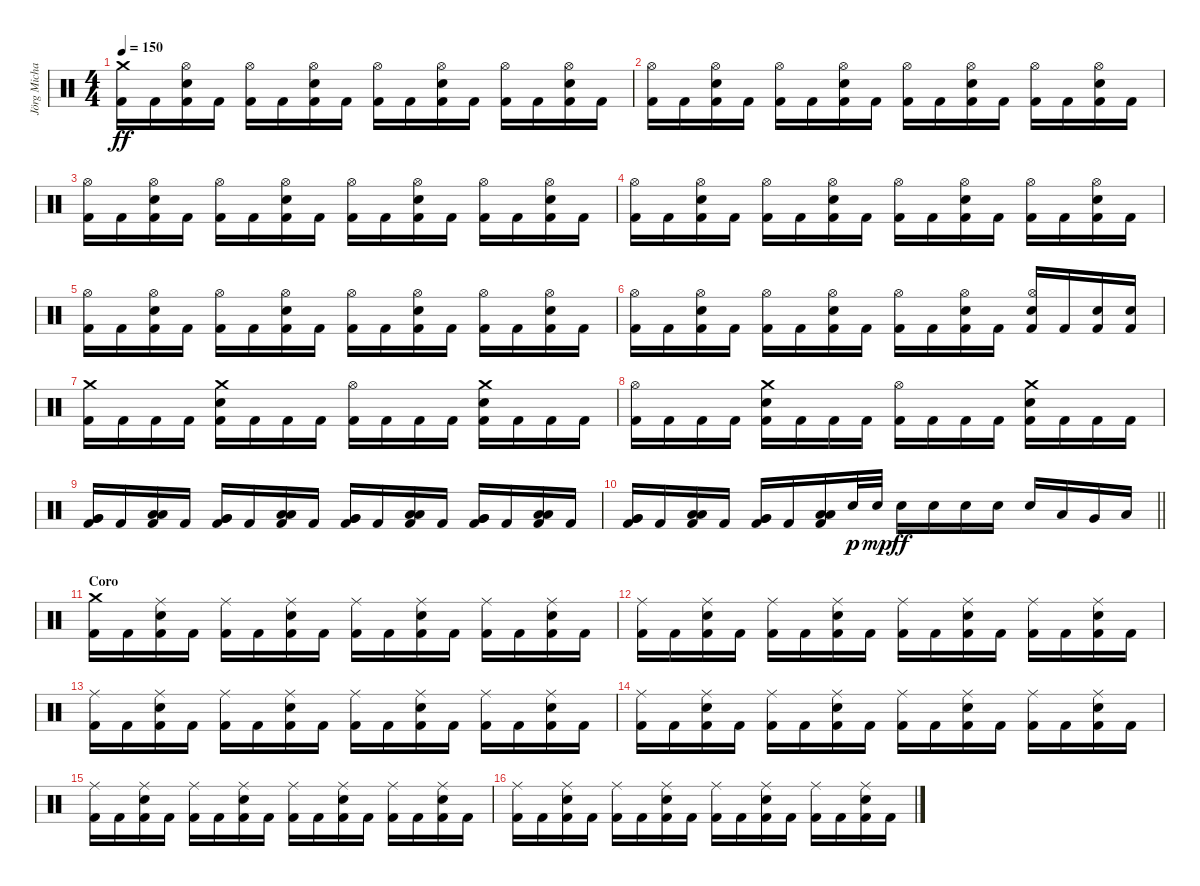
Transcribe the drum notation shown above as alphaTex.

\track ("Jörg Michael" "Jörg Micha") {instrument percussion}
\staff {score}
\articulation defaults
\ts (4 4)
\tempo 150
\clef neutral
\ks c
("Crash medium (hit)" "Kick (hit) 2").16{dy ff} "Kick (hit) 2".16 ("Hi-Hat (open)" "Electric Snare (hit)" "Kick (hit) 2").16 "Kick (hit) 2".16 ("Hi-Hat (open)" "Kick (hit) 2").16 "Kick (hit) 2".16 ("Hi-Hat (open)" "Electric Snare (hit)" "Kick (hit) 2").16 "Kick (hit) 2".16 ("Hi-Hat (open)" "Kick (hit) 2").16 "Kick (hit) 2".16 ("Hi-Hat (open)" "Electric Snare (hit)" "Kick (hit) 2").16 "Kick (hit) 2".16 ("Hi-Hat (open)" "Kick (hit) 2").16 "Kick (hit) 2".16 ("Hi-Hat (open)" "Electric Snare (hit)" "Kick (hit) 2").16 "Kick (hit) 2".16 |
("Hi-Hat (open)" "Kick (hit) 2").16 "Kick (hit) 2".16 ("Hi-Hat (open)" "Electric Snare (hit)" "Kick (hit) 2").16 "Kick (hit) 2".16 ("Hi-Hat (open)" "Kick (hit) 2").16 "Kick (hit) 2".16 ("Hi-Hat (open)" "Electric Snare (hit)" "Kick (hit) 2").16 "Kick (hit) 2".16 ("Hi-Hat (open)" "Kick (hit) 2").16 "Kick (hit) 2".16 ("Hi-Hat (open)" "Electric Snare (hit)" "Kick (hit) 2").16 "Kick (hit) 2".16 ("Hi-Hat (open)" "Kick (hit) 2").16 "Kick (hit) 2".16 ("Hi-Hat (open)" "Electric Snare (hit)" "Kick (hit) 2").16 "Kick (hit) 2".16 |
("Hi-Hat (open)" "Kick (hit) 2").16 "Kick (hit) 2".16 ("Hi-Hat (open)" "Electric Snare (hit)" "Kick (hit) 2").16 "Kick (hit) 2".16 ("Hi-Hat (open)" "Kick (hit) 2").16 "Kick (hit) 2".16 ("Hi-Hat (open)" "Electric Snare (hit)" "Kick (hit) 2").16 "Kick (hit) 2".16 ("Hi-Hat (open)" "Kick (hit) 2").16 "Kick (hit) 2".16 ("Hi-Hat (open)" "Electric Snare (hit)" "Kick (hit) 2").16 "Kick (hit) 2".16 ("Hi-Hat (open)" "Kick (hit) 2").16 "Kick (hit) 2".16 ("Hi-Hat (open)" "Electric Snare (hit)" "Kick (hit) 2").16 "Kick (hit) 2".16 |
("Hi-Hat (open)" "Kick (hit) 2").16 "Kick (hit) 2".16 ("Hi-Hat (open)" "Electric Snare (hit)" "Kick (hit) 2").16 "Kick (hit) 2".16 ("Hi-Hat (open)" "Kick (hit) 2").16 "Kick (hit) 2".16 ("Hi-Hat (open)" "Electric Snare (hit)" "Kick (hit) 2").16 "Kick (hit) 2".16 ("Hi-Hat (open)" "Kick (hit) 2").16 "Kick (hit) 2".16 ("Hi-Hat (open)" "Electric Snare (hit)" "Kick (hit) 2").16 "Kick (hit) 2".16 ("Hi-Hat (open)" "Kick (hit) 2").16 "Kick (hit) 2".16 ("Hi-Hat (open)" "Electric Snare (hit)" "Kick (hit) 2").16 "Kick (hit) 2".16 |
("Hi-Hat (open)" "Kick (hit) 2").16 "Kick (hit) 2".16 ("Hi-Hat (open)" "Electric Snare (hit)" "Kick (hit) 2").16 "Kick (hit) 2".16 ("Hi-Hat (open)" "Kick (hit) 2").16 "Kick (hit) 2".16 ("Hi-Hat (open)" "Electric Snare (hit)" "Kick (hit) 2").16 "Kick (hit) 2".16 ("Hi-Hat (open)" "Kick (hit) 2").16 "Kick (hit) 2".16 ("Hi-Hat (open)" "Electric Snare (hit)" "Kick (hit) 2").16 "Kick (hit) 2".16 ("Hi-Hat (open)" "Kick (hit) 2").16 "Kick (hit) 2".16 ("Hi-Hat (open)" "Electric Snare (hit)" "Kick (hit) 2").16 "Kick (hit) 2".16 |
("Hi-Hat (open)" "Kick (hit) 2").16 "Kick (hit) 2".16 ("Hi-Hat (open)" "Electric Snare (hit)" "Kick (hit) 2").16 "Kick (hit) 2".16 ("Hi-Hat (open)" "Kick (hit) 2").16 "Kick (hit) 2".16 ("Hi-Hat (open)" "Electric Snare (hit)" "Kick (hit) 2").16 "Kick (hit) 2".16 ("Hi-Hat (open)" "Kick (hit) 2").16 "Kick (hit) 2".16 ("Hi-Hat (open)" "Electric Snare (hit)" "Kick (hit) 2").16 "Kick (hit) 2".16 ("Hi-Hat (open)" "Electric Snare (hit)" "Kick (hit) 2").16 "Kick (hit) 2".16 ("Electric Snare (hit)" "Kick (hit) 2").16 ("Electric Snare (hit)" "Kick (hit) 2").16 |
("Crash medium (hit)" "Kick (hit) 2").16 "Kick (hit) 2".16 "Kick (hit) 2".16 "Kick (hit) 2".16 ("Crash medium (hit)" "Electric Snare (hit)" "Kick (hit) 2").16 "Kick (hit) 2".16 "Kick (hit) 2".16 "Kick (hit) 2".16 ("Hi-Hat (open)" "Kick (hit) 2").16 "Kick (hit) 2".16 "Kick (hit) 2".16 "Kick (hit) 2".16 ("Crash medium (hit)" "Electric Snare (hit)" "Kick (hit) 2").16 "Kick (hit) 2".16 "Kick (hit) 2".16 "Kick (hit) 2".16 |
("Hi-Hat (open)" "Kick (hit) 2").16 "Kick (hit) 2".16 "Kick (hit) 2".16 "Kick (hit) 2".16 ("Crash medium (hit)" "Electric Snare (hit)" "Kick (hit) 2").16 "Kick (hit) 2".16 "Kick (hit) 2".16 "Kick (hit) 2".16 ("Hi-Hat (open)" "Kick (hit) 2").16 "Kick (hit) 2".16 "Kick (hit) 2".16 "Kick (hit) 2".16 ("Crash medium (hit)" "Electric Snare (hit)" "Kick (hit) 2").16 "Kick (hit) 2".16 "Kick (hit) 2".16 "Kick (hit) 2".16 |
("Very Low Tom (hit)" "Very Low Tom (hit)" "Kick (hit) 2").16 "Kick (hit) 2".16 ("Low Tom (hit)" "Low Tom (hit)" "Kick (hit) 2").16 "Kick (hit) 2".16 ("Very Low Tom (hit)" "Very Low Tom (hit)" "Kick (hit) 2").16 "Kick (hit) 2".16 ("Low Tom (hit)" "Low Tom (hit)" "Kick (hit) 2").16 "Kick (hit) 2".16 ("Very Low Tom (hit)" "Very Low Tom (hit)" "Kick (hit) 2").16 "Kick (hit) 2".16 ("Low Tom (hit)" "Low Tom (hit)" "Kick (hit) 2").16 "Kick (hit) 2".16 ("Very Low Tom (hit)" "Very Low Tom (hit)" "Kick (hit) 2").16 "Kick (hit) 2".16 ("Low Tom (hit)" "Low Tom (hit)" "Kick (hit) 2").16 "Kick (hit) 2".16 |
\barLineRight lightlight
("Very Low Tom (hit)" "Very Low Tom (hit)" "Kick (hit) 2").16 "Kick (hit) 2".16 ("Low Tom (hit)" "Low Tom (hit)" "Kick (hit) 2").16 "Kick (hit) 2".16 ("Very Low Tom (hit)" "Very Low Tom (hit)" "Kick (hit) 2").16 "Kick (hit) 2".16 ("Low Tom (hit)" "Low Tom (hit)" "Kick (hit) 2").16 "Electric Snare (hit)".32{dy p} "Electric Snare (hit)".32{dy mp} "Electric Snare (hit)".16{dy ff} "Electric Snare (hit)".16 "Electric Snare (hit)".16 "Electric Snare (hit)".16 "Electric Snare (hit)".16 "Low Tom (hit)".16 "Very Low Tom (hit)".16 "Low Floor Tom (hit)".16 |
\section ("" "Coro")
("Crash medium (hit)" "Kick (hit) 2").16 "Kick (hit) 2".16 ("Ride (middle)" "Electric Snare (hit)" "Kick (hit) 2").16 "Kick (hit) 2".16 ("Ride (middle)" "Kick (hit) 2").16 "Kick (hit) 2".16 ("Ride (middle)" "Electric Snare (hit)" "Kick (hit) 2").16 "Kick (hit) 2".16 ("Ride (middle)" "Kick (hit) 2").16 "Kick (hit) 2".16 ("Ride (middle)" "Electric Snare (hit)" "Kick (hit) 2").16 "Kick (hit) 2".16 ("Ride (middle)" "Kick (hit) 2").16 "Kick (hit) 2".16 ("Ride (middle)" "Electric Snare (hit)" "Kick (hit) 2").16 "Kick (hit) 2".16 |
("Ride (middle)" "Kick (hit) 2").16 "Kick (hit) 2".16 ("Ride (middle)" "Electric Snare (hit)" "Kick (hit) 2").16 "Kick (hit) 2".16 ("Ride (middle)" "Kick (hit) 2").16 "Kick (hit) 2".16 ("Ride (middle)" "Electric Snare (hit)" "Kick (hit) 2").16 "Kick (hit) 2".16 ("Ride (middle)" "Kick (hit) 2").16 "Kick (hit) 2".16 ("Ride (middle)" "Electric Snare (hit)" "Kick (hit) 2").16 "Kick (hit) 2".16 ("Ride (middle)" "Kick (hit) 2").16 "Kick (hit) 2".16 ("Ride (middle)" "Electric Snare (hit)" "Kick (hit) 2").16 "Kick (hit) 2".16 |
("Ride (middle)" "Kick (hit) 2").16 "Kick (hit) 2".16 ("Ride (middle)" "Electric Snare (hit)" "Kick (hit) 2").16 "Kick (hit) 2".16 ("Ride (middle)" "Kick (hit) 2").16 "Kick (hit) 2".16 ("Ride (middle)" "Electric Snare (hit)" "Kick (hit) 2").16 "Kick (hit) 2".16 ("Ride (middle)" "Kick (hit) 2").16 "Kick (hit) 2".16 ("Ride (middle)" "Electric Snare (hit)" "Kick (hit) 2").16 "Kick (hit) 2".16 ("Ride (middle)" "Kick (hit) 2").16 "Kick (hit) 2".16 ("Ride (middle)" "Electric Snare (hit)" "Kick (hit) 2").16 "Kick (hit) 2".16 |
("Ride (middle)" "Kick (hit) 2").16 "Kick (hit) 2".16 ("Ride (middle)" "Electric Snare (hit)" "Kick (hit) 2").16 "Kick (hit) 2".16 ("Ride (middle)" "Kick (hit) 2").16 "Kick (hit) 2".16 ("Ride (middle)" "Electric Snare (hit)" "Kick (hit) 2").16 "Kick (hit) 2".16 ("Ride (middle)" "Kick (hit) 2").16 "Kick (hit) 2".16 ("Ride (middle)" "Electric Snare (hit)" "Kick (hit) 2").16 "Kick (hit) 2".16 ("Ride (middle)" "Kick (hit) 2").16 "Kick (hit) 2".16 ("Ride (middle)" "Electric Snare (hit)" "Kick (hit) 2").16 "Kick (hit) 2".16 |
("Ride (middle)" "Kick (hit) 2").16 "Kick (hit) 2".16 ("Ride (middle)" "Electric Snare (hit)" "Kick (hit) 2").16 "Kick (hit) 2".16 ("Ride (middle)" "Kick (hit) 2").16 "Kick (hit) 2".16 ("Ride (middle)" "Electric Snare (hit)" "Kick (hit) 2").16 "Kick (hit) 2".16 ("Ride (middle)" "Kick (hit) 2").16 "Kick (hit) 2".16 ("Ride (middle)" "Electric Snare (hit)" "Kick (hit) 2").16 "Kick (hit) 2".16 ("Ride (middle)" "Kick (hit) 2").16 "Kick (hit) 2".16 ("Ride (middle)" "Electric Snare (hit)" "Kick (hit) 2").16 "Kick (hit) 2".16 |
("Ride (middle)" "Kick (hit) 2").16 "Kick (hit) 2".16 ("Ride (middle)" "Electric Snare (hit)" "Kick (hit) 2").16 "Kick (hit) 2".16 ("Ride (middle)" "Kick (hit) 2").16 "Kick (hit) 2".16 ("Ride (middle)" "Electric Snare (hit)" "Kick (hit) 2").16 "Kick (hit) 2".16 ("Ride (middle)" "Kick (hit) 2").16 "Kick (hit) 2".16 ("Ride (middle)" "Electric Snare (hit)" "Kick (hit) 2").16 "Kick (hit) 2".16 ("Ride (middle)" "Kick (hit) 2").16 "Kick (hit) 2".16 ("Ride (middle)" "Electric Snare (hit)" "Kick (hit) 2").16 "Kick (hit) 2".16
